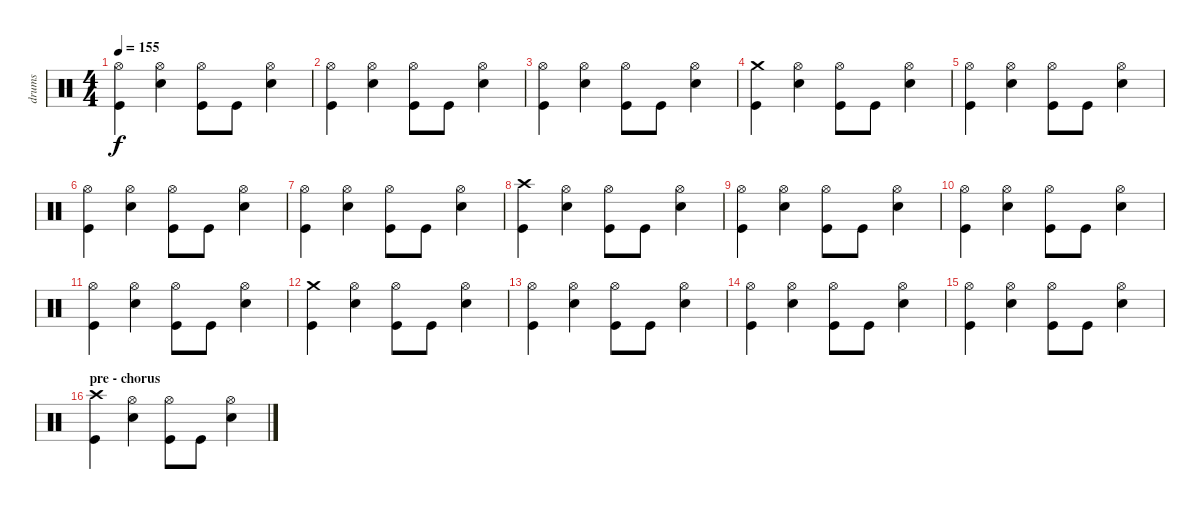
\track ("drums" "drums") {instrument percussion}
\staff {score}
\articulation defaults
\ts (4 4)
\tempo 155
\clef neutral
\ks c
("Hi-Hat (open)" "Kick (hit)").4{dy f} ("Hi-Hat (open)" "Snare (hit) 2").4 ("Hi-Hat (open)" "Kick (hit)").8 "Kick (hit)".8 ("Hi-Hat (open)" "Snare (hit) 2").4 |
("Hi-Hat (open)" "Kick (hit)").4 ("Hi-Hat (open)" "Snare (hit) 2").4 ("Hi-Hat (open)" "Kick (hit)").8 "Kick (hit)".8 ("Hi-Hat (open)" "Snare (hit) 2").4 |
("Hi-Hat (open)" "Kick (hit)").4 ("Hi-Hat (open)" "Snare (hit) 2").4 ("Hi-Hat (open)" "Kick (hit)").8 "Kick (hit)".8 ("Hi-Hat (open)" "Snare (hit) 2").4 |
("Crash medium (hit)" "Kick (hit)").4 ("Hi-Hat (open)" "Snare (hit) 2").4 ("Hi-Hat (open)" "Kick (hit)").8 "Kick (hit)".8 ("Hi-Hat (open)" "Snare (hit) 2").4 |
("Hi-Hat (open)" "Kick (hit)").4 ("Hi-Hat (open)" "Snare (hit) 2").4 ("Hi-Hat (open)" "Kick (hit)").8 "Kick (hit)".8 ("Hi-Hat (open)" "Snare (hit) 2").4 |
("Hi-Hat (open)" "Kick (hit)").4 ("Hi-Hat (open)" "Snare (hit) 2").4 ("Hi-Hat (open)" "Kick (hit)").8 "Kick (hit)".8 ("Hi-Hat (open)" "Snare (hit) 2").4 |
("Hi-Hat (open)" "Kick (hit)").4 ("Hi-Hat (open)" "Snare (hit) 2").4 ("Hi-Hat (open)" "Kick (hit)").8 "Kick (hit)".8 ("Hi-Hat (open)" "Snare (hit) 2").4 |
("Crash high (hit)" "Kick (hit)").4 ("Hi-Hat (open)" "Snare (hit) 2").4 ("Hi-Hat (open)" "Kick (hit)").8 "Kick (hit)".8 ("Hi-Hat (open)" "Snare (hit) 2").4 |
("Hi-Hat (open)" "Kick (hit)").4 ("Hi-Hat (open)" "Snare (hit) 2").4 ("Hi-Hat (open)" "Kick (hit)").8 "Kick (hit)".8 ("Hi-Hat (open)" "Snare (hit) 2").4 |
("Hi-Hat (open)" "Kick (hit)").4 ("Hi-Hat (open)" "Snare (hit) 2").4 ("Hi-Hat (open)" "Kick (hit)").8 "Kick (hit)".8 ("Hi-Hat (open)" "Snare (hit) 2").4 |
("Hi-Hat (open)" "Kick (hit)").4 ("Hi-Hat (open)" "Snare (hit) 2").4 ("Hi-Hat (open)" "Kick (hit)").8 "Kick (hit)".8 ("Hi-Hat (open)" "Snare (hit) 2").4 |
("Crash medium (hit)" "Kick (hit)").4 ("Hi-Hat (open)" "Snare (hit) 2").4 ("Hi-Hat (open)" "Kick (hit)").8 "Kick (hit)".8 ("Hi-Hat (open)" "Snare (hit) 2").4 |
("Hi-Hat (open)" "Kick (hit)").4 ("Hi-Hat (open)" "Snare (hit) 2").4 ("Hi-Hat (open)" "Kick (hit)").8 "Kick (hit)".8 ("Hi-Hat (open)" "Snare (hit) 2").4 |
("Hi-Hat (open)" "Kick (hit)").4 ("Hi-Hat (open)" "Snare (hit) 2").4 ("Hi-Hat (open)" "Kick (hit)").8 "Kick (hit)".8 ("Hi-Hat (open)" "Snare (hit) 2").4 |
("Hi-Hat (open)" "Kick (hit)").4 ("Hi-Hat (open)" "Snare (hit) 2").4 ("Hi-Hat (open)" "Kick (hit)").8 "Kick (hit)".8 ("Hi-Hat (open)" "Snare (hit) 2").4 |
\section ("" "pre - chorus")
("Crash high (hit)" "Kick (hit)").4 ("Hi-Hat (open)" "Snare (hit) 2").4 ("Hi-Hat (open)" "Kick (hit)").8 "Kick (hit)".8 ("Hi-Hat (open)" "Snare (hit) 2").4
